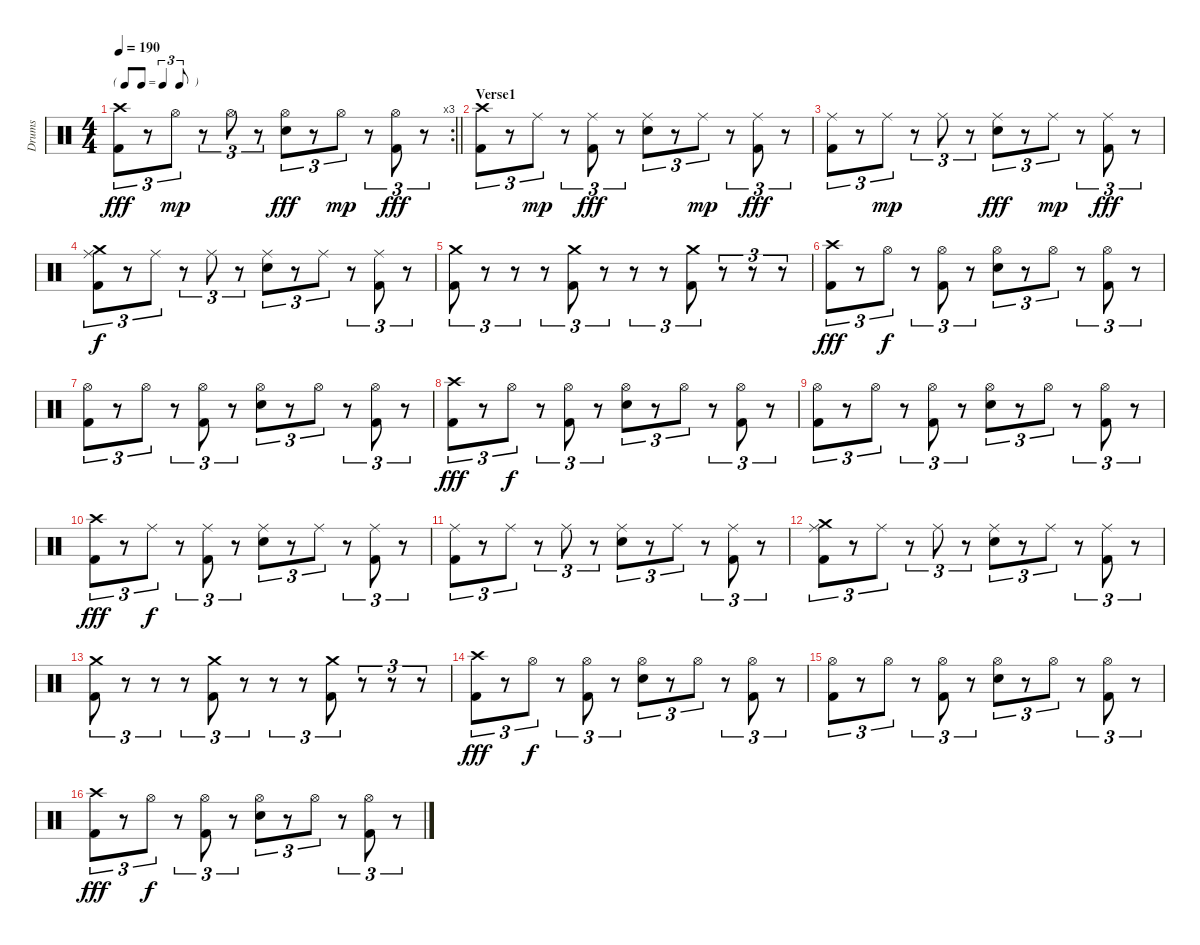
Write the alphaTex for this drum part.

\track ("Drums" "Drums") {instrument percussion}
\staff {score}
\articulation defaults
\rc 3
\ts (4 4)
\tf triplet8th
\tempo 190
\clef neutral
\barLineRight lightlight
\ks c
("Crash high (hit)" "Kick (hit) 2").8{tu (3 2) dy fff} r.8{tu (3 2)} "Hi-Hat (open)".8{tu (3 2) dy mp} r.8{tu (3 2)} "Hi-Hat (open)".8{tu (3 2)} r.8{tu (3 2)} ("Hi-Hat (open)" "Electric Snare (hit)").8{tu (3 2) dy fff} r.8{tu (3 2)} "Hi-Hat (open)".8{tu (3 2) dy mp} r.8{tu (3 2)} ("Hi-Hat (open)" "Kick (hit) 2").8{tu (3 2) dy fff} r.8{tu (3 2)} |
\section ("" "Verse1")
("Crash high (hit)" "Kick (hit) 2").8{tu (3 2)} r.8{tu (3 2)} "Ride (middle)".8{tu (3 2) dy mp} r.8{tu (3 2)} ("Ride (middle)" "Kick (hit) 2").8{tu (3 2) dy fff} r.8{tu (3 2)} ("Ride (middle)" "Electric Snare (hit)").8{tu (3 2)} r.8{tu (3 2)} "Ride (middle)".8{tu (3 2) dy mp} r.8{tu (3 2)} ("Ride (middle)" "Kick (hit) 2").8{tu (3 2) dy fff} r.8{tu (3 2)} |
("Ride (middle)" "Kick (hit) 2").8{tu (3 2)} r.8{tu (3 2)} "Ride (middle)".8{tu (3 2) dy mp} r.8{tu (3 2)} "Ride (middle)".8{tu (3 2)} r.8{tu (3 2)} ("Ride (middle)" "Electric Snare (hit)").8{tu (3 2) dy fff} r.8{tu (3 2)} "Ride (middle)".8{tu (3 2) dy mp} r.8{tu (3 2)} ("Ride (middle)" "Kick (hit) 2").8{tu (3 2) dy fff} r.8{tu (3 2)} |
("Crash medium (hit)" "Ride (middle)" "Kick (hit) 2").8{tu (3 2) dy f} r.8{tu (3 2)} "Ride (middle)".8{tu (3 2)} r.8{tu (3 2)} "Ride (middle)".8{tu (3 2)} r.8{tu (3 2)} ("Ride (middle)" "Electric Snare (hit)").8{tu (3 2)} r.8{tu (3 2)} "Ride (middle)".8{tu (3 2)} r.8{tu (3 2)} ("Ride (middle)" "Kick (hit) 2").8{tu (3 2)} r.8{tu (3 2)} |
("Crash medium (hit)" "Kick (hit) 2").8{tu (3 2)} r.8{tu (3 2)} r.8{tu (3 2)} r.8{tu (3 2)} ("Crash medium (hit)" "Kick (hit) 2").8{tu (3 2)} r.8{tu (3 2)} r.8{tu (3 2)} r.8{tu (3 2)} ("Crash medium (hit)" "Kick (hit) 2").8{tu (3 2)} r.8{tu (3 2)} r.8{tu (3 2)} r.8{tu (3 2)} |
("Crash high (hit)" "Kick (hit) 2").8{tu (3 2) dy fff} r.8{tu (3 2)} "Hi-Hat (open)".8{tu (3 2) dy f} r.8{tu (3 2)} ("Hi-Hat (open)" "Kick (hit) 2").8{tu (3 2)} r.8{tu (3 2)} ("Hi-Hat (open)" "Electric Snare (hit)").8{tu (3 2)} r.8{tu (3 2)} "Hi-Hat (open)".8{tu (3 2)} r.8{tu (3 2)} ("Hi-Hat (open)" "Kick (hit) 2").8{tu (3 2)} r.8{tu (3 2)} |
("Hi-Hat (open)" "Kick (hit) 2").8{tu (3 2)} r.8{tu (3 2)} "Hi-Hat (open)".8{tu (3 2)} r.8{tu (3 2)} ("Hi-Hat (open)" "Kick (hit) 2").8{tu (3 2)} r.8{tu (3 2)} ("Hi-Hat (open)" "Electric Snare (hit)").8{tu (3 2)} r.8{tu (3 2)} "Hi-Hat (open)".8{tu (3 2)} r.8{tu (3 2)} ("Hi-Hat (open)" "Kick (hit) 2").8{tu (3 2)} r.8{tu (3 2)} |
("Crash high (hit)" "Kick (hit) 2").8{tu (3 2) dy fff} r.8{tu (3 2)} "Hi-Hat (open)".8{tu (3 2) dy f} r.8{tu (3 2)} ("Hi-Hat (open)" "Kick (hit) 2").8{tu (3 2)} r.8{tu (3 2)} ("Hi-Hat (open)" "Electric Snare (hit)").8{tu (3 2)} r.8{tu (3 2)} "Hi-Hat (open)".8{tu (3 2)} r.8{tu (3 2)} ("Hi-Hat (open)" "Kick (hit) 2").8{tu (3 2)} r.8{tu (3 2)} |
("Hi-Hat (open)" "Kick (hit) 2").8{tu (3 2)} r.8{tu (3 2)} "Hi-Hat (open)".8{tu (3 2)} r.8{tu (3 2)} ("Hi-Hat (open)" "Kick (hit) 2").8{tu (3 2)} r.8{tu (3 2)} ("Hi-Hat (open)" "Electric Snare (hit)").8{tu (3 2)} r.8{tu (3 2)} "Hi-Hat (open)".8{tu (3 2)} r.8{tu (3 2)} ("Hi-Hat (open)" "Kick (hit) 2").8{tu (3 2)} r.8{tu (3 2)} |
("Crash high (hit)" "Kick (hit) 2").8{tu (3 2) dy fff} r.8{tu (3 2)} "Ride (middle)".8{tu (3 2) dy f} r.8{tu (3 2)} ("Ride (middle)" "Kick (hit) 2").8{tu (3 2)} r.8{tu (3 2)} ("Ride (middle)" "Electric Snare (hit)").8{tu (3 2)} r.8{tu (3 2)} "Ride (middle)".8{tu (3 2)} r.8{tu (3 2)} ("Ride (middle)" "Kick (hit) 2").8{tu (3 2)} r.8{tu (3 2)} |
("Ride (middle)" "Kick (hit) 2").8{tu (3 2)} r.8{tu (3 2)} "Ride (middle)".8{tu (3 2)} r.8{tu (3 2)} "Ride (middle)".8{tu (3 2)} r.8{tu (3 2)} ("Ride (middle)" "Electric Snare (hit)").8{tu (3 2)} r.8{tu (3 2)} "Ride (middle)".8{tu (3 2)} r.8{tu (3 2)} ("Ride (middle)" "Kick (hit) 2").8{tu (3 2)} r.8{tu (3 2)} |
("Crash medium (hit)" "Ride (middle)" "Kick (hit) 2").8{tu (3 2)} r.8{tu (3 2)} "Ride (middle)".8{tu (3 2)} r.8{tu (3 2)} "Ride (middle)".8{tu (3 2)} r.8{tu (3 2)} ("Ride (middle)" "Electric Snare (hit)").8{tu (3 2)} r.8{tu (3 2)} "Ride (middle)".8{tu (3 2)} r.8{tu (3 2)} ("Ride (middle)" "Kick (hit) 2").8{tu (3 2)} r.8{tu (3 2)} |
("Crash medium (hit)" "Kick (hit) 2").8{tu (3 2)} r.8{tu (3 2)} r.8{tu (3 2)} r.8{tu (3 2)} ("Crash medium (hit)" "Kick (hit) 2").8{tu (3 2)} r.8{tu (3 2)} r.8{tu (3 2)} r.8{tu (3 2)} ("Crash medium (hit)" "Kick (hit) 2").8{tu (3 2)} r.8{tu (3 2)} r.8{tu (3 2)} r.8{tu (3 2)} |
("Crash high (hit)" "Kick (hit) 2").8{tu (3 2) dy fff} r.8{tu (3 2)} "Hi-Hat (open)".8{tu (3 2) dy f} r.8{tu (3 2)} ("Hi-Hat (open)" "Kick (hit) 2").8{tu (3 2)} r.8{tu (3 2)} ("Hi-Hat (open)" "Electric Snare (hit)").8{tu (3 2)} r.8{tu (3 2)} "Hi-Hat (open)".8{tu (3 2)} r.8{tu (3 2)} ("Hi-Hat (open)" "Kick (hit) 2").8{tu (3 2)} r.8{tu (3 2)} |
("Hi-Hat (open)" "Kick (hit) 2").8{tu (3 2)} r.8{tu (3 2)} "Hi-Hat (open)".8{tu (3 2)} r.8{tu (3 2)} ("Hi-Hat (open)" "Kick (hit) 2").8{tu (3 2)} r.8{tu (3 2)} ("Hi-Hat (open)" "Electric Snare (hit)").8{tu (3 2)} r.8{tu (3 2)} "Hi-Hat (open)".8{tu (3 2)} r.8{tu (3 2)} ("Hi-Hat (open)" "Kick (hit) 2").8{tu (3 2)} r.8{tu (3 2)} |
("Crash high (hit)" "Kick (hit) 2").8{tu (3 2) dy fff} r.8{tu (3 2)} "Hi-Hat (open)".8{tu (3 2) dy f} r.8{tu (3 2)} ("Hi-Hat (open)" "Kick (hit) 2").8{tu (3 2)} r.8{tu (3 2)} ("Hi-Hat (open)" "Electric Snare (hit)").8{tu (3 2)} r.8{tu (3 2)} "Hi-Hat (open)".8{tu (3 2)} r.8{tu (3 2)} ("Hi-Hat (open)" "Kick (hit) 2").8{tu (3 2)} r.8{tu (3 2)}
